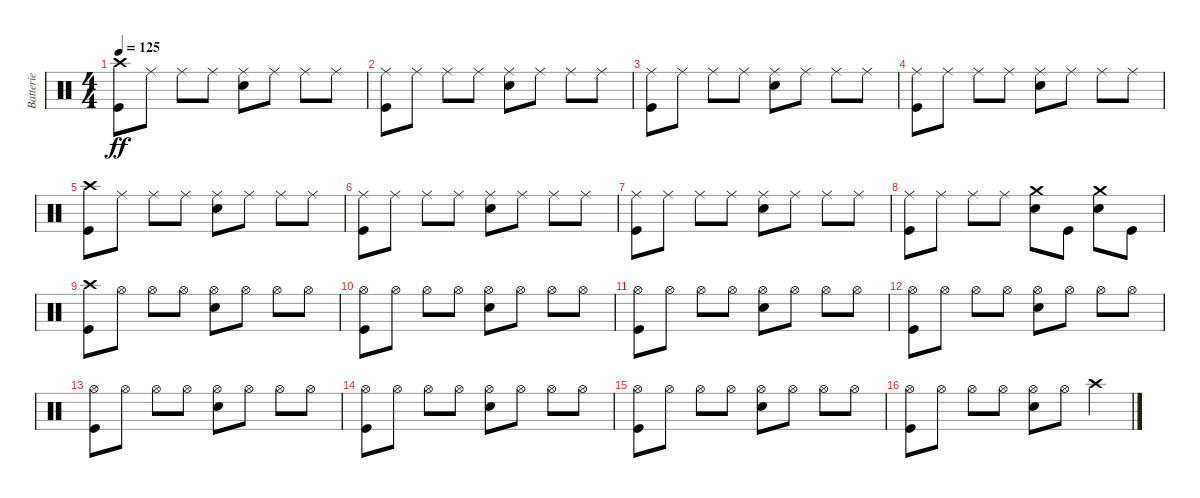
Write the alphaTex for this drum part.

\track ("Batterie" "Batterie") {instrument percussion}
\staff {score}
\articulation defaults
\ts (4 4)
\tempo 125
\clef neutral
\ks c
("Crash high (hit)" "Kick (hit)").8{dy ff} "Ride (middle)".8 "Ride (middle)".8 "Ride (middle)".8 ("Ride (middle)" "Electric Snare (hit)").8 "Ride (middle)".8 "Ride (middle)".8 "Ride (middle)".8 |
("Ride (middle)" "Kick (hit)").8 "Ride (middle)".8 "Ride (middle)".8 "Ride (middle)".8 ("Ride (middle)" "Electric Snare (hit)").8 "Ride (middle)".8 "Ride (middle)".8 "Ride (middle)".8 |
("Ride (middle)" "Kick (hit)").8 "Ride (middle)".8 "Ride (middle)".8 "Ride (middle)".8 ("Ride (middle)" "Electric Snare (hit)").8 "Ride (middle)".8 "Ride (middle)".8 "Ride (middle)".8 |
("Ride (middle)" "Kick (hit)").8 "Ride (middle)".8 "Ride (middle)".8 "Ride (middle)".8 ("Ride (middle)" "Electric Snare (hit)").8 "Ride (middle)".8 "Ride (middle)".8 "Ride (middle)".8 |
("Crash high (hit)" "Kick (hit)").8 "Ride (middle)".8 "Ride (middle)".8 "Ride (middle)".8 ("Ride (middle)" "Electric Snare (hit)").8 "Ride (middle)".8 "Ride (middle)".8 "Ride (middle)".8 |
("Ride (middle)" "Kick (hit)").8 "Ride (middle)".8 "Ride (middle)".8 "Ride (middle)".8 ("Ride (middle)" "Electric Snare (hit)").8 "Ride (middle)".8 "Ride (middle)".8 "Ride (middle)".8 |
("Ride (middle)" "Kick (hit)").8 "Ride (middle)".8 "Ride (middle)".8 "Ride (middle)".8 ("Ride (middle)" "Electric Snare (hit)").8 "Ride (middle)".8 "Ride (middle)".8 "Ride (middle)".8 |
("Ride (middle)" "Kick (hit)").8 "Ride (middle)".8 "Ride (middle)".8 "Ride (middle)".8 ("Crash medium (hit)" "Electric Snare (hit)").8 "Kick (hit)".8 ("Crash medium (hit)" "Electric Snare (hit)").8 "Kick (hit)".8 |
("Crash high (hit)" "Kick (hit)").8 "Hi-Hat (open)".8 "Hi-Hat (open)".8 "Hi-Hat (open)".8 ("Hi-Hat (open)" "Electric Snare (hit)").8 "Hi-Hat (open)".8 "Hi-Hat (open)".8 "Hi-Hat (open)".8 |
("Hi-Hat (open)" "Kick (hit)").8 "Hi-Hat (open)".8 "Hi-Hat (open)".8 "Hi-Hat (open)".8 ("Hi-Hat (open)" "Electric Snare (hit)").8 "Hi-Hat (open)".8 "Hi-Hat (open)".8 "Hi-Hat (open)".8 |
("Hi-Hat (open)" "Kick (hit)").8 "Hi-Hat (open)".8 "Hi-Hat (open)".8 "Hi-Hat (open)".8 ("Hi-Hat (open)" "Electric Snare (hit)").8 "Hi-Hat (open)".8 "Hi-Hat (open)".8 "Hi-Hat (open)".8 |
("Hi-Hat (open)" "Kick (hit)").8 "Hi-Hat (open)".8 "Hi-Hat (open)".8 "Hi-Hat (open)".8 ("Hi-Hat (open)" "Electric Snare (hit)").8 "Hi-Hat (open)".8 "Hi-Hat (open)".8 "Hi-Hat (open)".8 |
("Hi-Hat (open)" "Kick (hit)").8 "Hi-Hat (open)".8 "Hi-Hat (open)".8 "Hi-Hat (open)".8 ("Hi-Hat (open)" "Electric Snare (hit)").8 "Hi-Hat (open)".8 "Hi-Hat (open)".8 "Hi-Hat (open)".8 |
("Hi-Hat (open)" "Kick (hit)").8 "Hi-Hat (open)".8 "Hi-Hat (open)".8 "Hi-Hat (open)".8 ("Hi-Hat (open)" "Electric Snare (hit)").8 "Hi-Hat (open)".8 "Hi-Hat (open)".8 "Hi-Hat (open)".8 |
("Hi-Hat (open)" "Kick (hit)").8 "Hi-Hat (open)".8 "Hi-Hat (open)".8 "Hi-Hat (open)".8 ("Hi-Hat (open)" "Electric Snare (hit)").8 "Hi-Hat (open)".8 "Hi-Hat (open)".8 "Hi-Hat (open)".8 |
("Hi-Hat (open)" "Kick (hit)").8 "Hi-Hat (open)".8 "Hi-Hat (open)".8 "Hi-Hat (open)".8 ("Hi-Hat (open)" "Electric Snare (hit)").8 "Hi-Hat (open)".8 "Crash high (hit)".4
